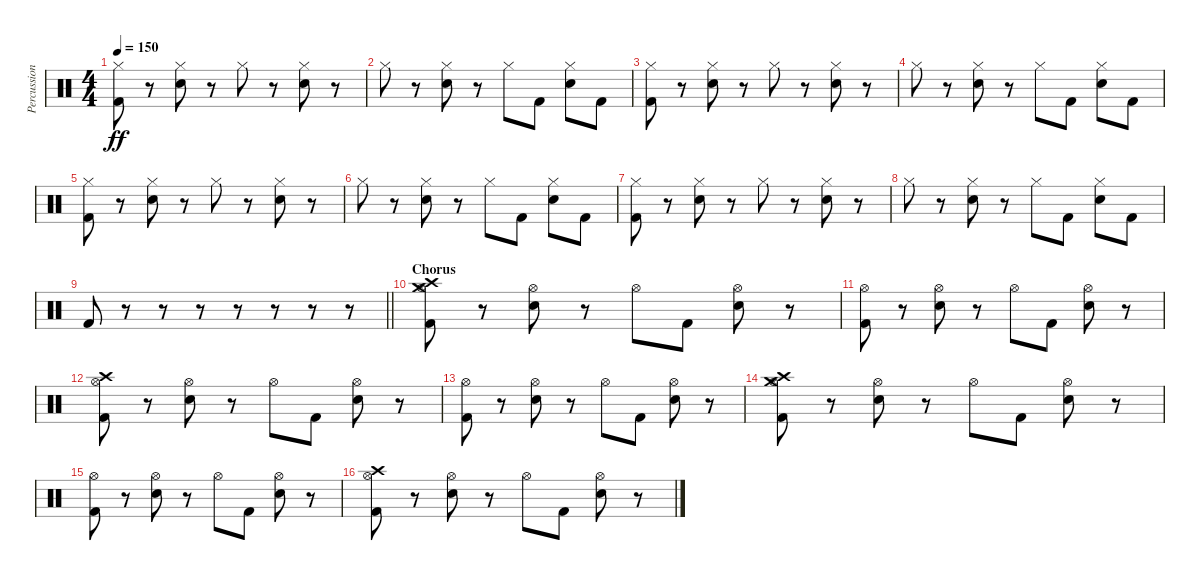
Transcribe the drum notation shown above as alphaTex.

\track ("Percussion" "Percussion") {instrument percussion}
\staff {score}
\articulation defaults
\ts (4 4)
\tempo 150
\clef neutral
\ks c
("Hi-Hat (closed)" "Kick (hit) 2").8{dy ff} r.8 ("Hi-Hat (closed)" "Snare (hit) 2").8 r.8 "Hi-Hat (closed)".8 r.8 ("Hi-Hat (closed)" "Snare (hit) 2").8 r.8 |
"Hi-Hat (closed)".8 r.8 ("Hi-Hat (closed)" "Snare (hit) 2").8 r.8 "Hi-Hat (closed)".8 "Kick (hit) 2".8 ("Hi-Hat (closed)" "Snare (hit) 2").8 "Kick (hit) 2".8 |
("Hi-Hat (closed)" "Kick (hit) 2").8 r.8 ("Hi-Hat (closed)" "Snare (hit) 2").8 r.8 "Hi-Hat (closed)".8 r.8 ("Hi-Hat (closed)" "Snare (hit) 2").8 r.8 |
"Hi-Hat (closed)".8 r.8 ("Hi-Hat (closed)" "Snare (hit) 2").8 r.8 "Hi-Hat (closed)".8 "Kick (hit) 2".8 ("Hi-Hat (closed)" "Snare (hit) 2").8 "Kick (hit) 2".8 |
("Hi-Hat (closed)" "Kick (hit) 2").8 r.8 ("Hi-Hat (closed)" "Snare (hit) 2").8 r.8 "Hi-Hat (closed)".8 r.8 ("Hi-Hat (closed)" "Snare (hit) 2").8 r.8 |
"Hi-Hat (closed)".8 r.8 ("Hi-Hat (closed)" "Snare (hit) 2").8 r.8 "Hi-Hat (closed)".8 "Kick (hit) 2".8 ("Hi-Hat (closed)" "Snare (hit) 2").8 "Kick (hit) 2".8 |
("Hi-Hat (closed)" "Kick (hit) 2").8 r.8 ("Hi-Hat (closed)" "Snare (hit) 2").8 r.8 "Hi-Hat (closed)".8 r.8 ("Hi-Hat (closed)" "Snare (hit) 2").8 r.8 |
"Hi-Hat (closed)".8 r.8 ("Hi-Hat (closed)" "Snare (hit) 2").8 r.8 "Hi-Hat (closed)".8 "Kick (hit) 2".8 ("Hi-Hat (closed)" "Snare (hit) 2").8 "Kick (hit) 2".8 |
\barLineRight lightlight "Kick (hit) 2".8
r.8 r.8 r.8 r.8 r.8 r.8 r.8 |
\section ("" "Chorus")
("Hi-Hat (open)" "Crash high (hit)" "Crash medium (hit)" "Kick (hit) 2").8 r.8 ("Hi-Hat (open)" "Snare (hit) 2").8 r.8 "Hi-Hat (open)".8 "Kick (hit) 2".8 ("Hi-Hat (open)" "Snare (hit) 2").8 r.8 |
("Hi-Hat (open)" "Kick (hit) 2").8 r.8 ("Hi-Hat (open)" "Snare (hit) 2").8 r.8 "Hi-Hat (open)".8 "Kick (hit) 2".8 ("Hi-Hat (open)" "Snare (hit) 2").8 r.8 |
("Hi-Hat (open)" "Crash high (hit)" "Kick (hit) 2").8 r.8 ("Hi-Hat (open)" "Snare (hit) 2").8 r.8 "Hi-Hat (open)".8 "Kick (hit) 2".8 ("Hi-Hat (open)" "Snare (hit) 2").8 r.8 |
("Hi-Hat (open)" "Kick (hit) 2").8 r.8 ("Hi-Hat (open)" "Snare (hit) 2").8 r.8 "Hi-Hat (open)".8 "Kick (hit) 2".8 ("Hi-Hat (open)" "Snare (hit) 2").8 r.8 |
("Hi-Hat (open)" "Crash high (hit)" "Crash medium (hit)" "Kick (hit) 2").8 r.8 ("Hi-Hat (open)" "Snare (hit) 2").8 r.8 "Hi-Hat (open)".8 "Kick (hit) 2".8 ("Hi-Hat (open)" "Snare (hit) 2").8 r.8 |
("Hi-Hat (open)" "Kick (hit) 2").8 r.8 ("Hi-Hat (open)" "Snare (hit) 2").8 r.8 "Hi-Hat (open)".8 "Kick (hit) 2".8 ("Hi-Hat (open)" "Snare (hit) 2").8 r.8 |
("Hi-Hat (open)" "Crash high (hit)" "Kick (hit) 2").8 r.8 ("Hi-Hat (open)" "Snare (hit) 2").8 r.8 "Hi-Hat (open)".8 "Kick (hit) 2".8 ("Hi-Hat (open)" "Snare (hit) 2").8 r.8
